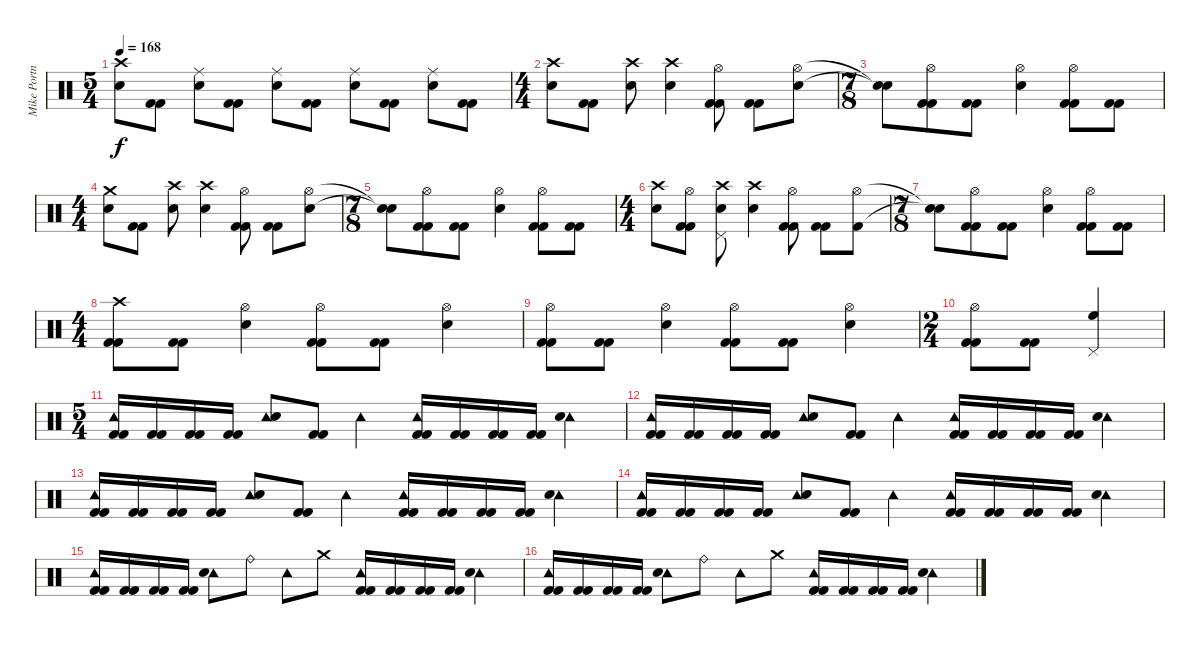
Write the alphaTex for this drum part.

\track ("Mike Portnoy - Drum" "Mike Portn") {instrument percussion}
\staff {score}
\articulation defaults
\ts (5 4)
\tempo 168
\clef neutral
\ks c
("Crash high (hit)" "Snare (hit) 2").8{dy f} ("Kick (hit) 2" "Kick (hit) 2").8 ("Ride (middle)" "Snare (hit) 2").8 ("Kick (hit) 2" "Kick (hit) 2").8 ("Ride (middle)" "Snare (hit) 2").8 ("Kick (hit) 2" "Kick (hit) 2").8 ("Ride (middle)" "Snare (hit) 2").8 ("Kick (hit) 2" "Kick (hit) 2").8 ("Ride (middle)" "Snare (hit) 2").8 ("Kick (hit) 2" "Kick (hit) 2").8 |
\ts (4 4)
("Crash high (hit)" "Snare (hit) 2").8 ("Kick (hit) 2" "Kick (hit) 2").8 ("Crash high (hit)" "Snare (hit) 2").8 ("Crash high (hit)" "Snare (hit) 2").4 ("Hi-Hat (open)" "Kick (hit) 2" "Kick (hit) 2").8 ("Kick (hit) 2" "Kick (hit) 2").8 ("Hi-Hat (open)" "Snare (hit) 2").8 |
\ts (7 8)
("Snare (hit)"{t} "Snare (hit)"{t}).8 ("Hi-Hat (open)" "Kick (hit) 2" "Kick (hit) 2").8 ("Kick (hit) 2" "Kick (hit) 2").8 ("Hi-Hat (open)" "Snare (hit) 2").4 ("Hi-Hat (open)" "Kick (hit) 2" "Kick (hit) 2").8 ("Kick (hit) 2" "Kick (hit) 2").8 |
\ts (4 4)
("Crash medium (hit)" "Snare (hit) 2").8 ("Kick (hit) 2" "Kick (hit) 2").8 ("Crash high (hit)" "Snare (hit) 2").8 ("Crash high (hit)" "Snare (hit) 2").4 ("Hi-Hat (open)" "Kick (hit) 2" "Kick (hit) 2").8 ("Kick (hit) 2" "Kick (hit) 2").8 ("Hi-Hat (open)" "Snare (hit) 2").8 |
\ts (7 8)
("Snare (hit)"{t} "Snare (hit)"{t}).8 ("Hi-Hat (open)" "Kick (hit) 2" "Kick (hit) 2").8 ("Kick (hit) 2" "Kick (hit) 2").8 ("Hi-Hat (open)" "Snare (hit) 2").4 ("Hi-Hat (open)" "Kick (hit) 2" "Kick (hit) 2").8 ("Kick (hit) 2" "Kick (hit) 2").8 |
\ts (4 4)
("Crash high (hit)" "Snare (hit) 2").8 ("Hi-Hat (open)" "Kick (hit) 2" "Kick (hit) 2").8 ("Crash high (hit)" "Pedal Hi-Hat (hit)" "Snare (hit) 2").8 ("Crash high (hit)" "Snare (hit) 2").4 ("Hi-Hat (open)" "Kick (hit) 2" "Kick (hit) 2").8 ("Kick (hit) 2" "Kick (hit) 2").8 ("Hi-Hat (open)" "Kick (hit) 2").8 |
\ts (7 8)
("Snare (hit)"{t} "Snare (hit)"{t}).8 ("Hi-Hat (open)" "Kick (hit) 2" "Kick (hit) 2").8 ("Kick (hit) 2" "Kick (hit) 2").8 ("Hi-Hat (open)" "Snare (hit) 2").4 ("Hi-Hat (open)" "Kick (hit) 2" "Kick (hit) 2").8 ("Kick (hit) 2" "Kick (hit) 2").8 |
\ts (4 4)
("Crash high (hit)" "Kick (hit) 2" "Kick (hit) 2").8 ("Kick (hit) 2" "Kick (hit) 2").8 ("Hi-Hat (open)" "Snare (hit) 2").4 ("Hi-Hat (open)" "Kick (hit) 2" "Kick (hit) 2").8 ("Kick (hit) 2" "Kick (hit) 2").8 ("Hi-Hat (open)" "Snare (hit) 2").4 |
("Hi-Hat (open)" "Kick (hit) 2" "Kick (hit) 2").8 ("Kick (hit) 2" "Kick (hit) 2").8 ("Hi-Hat (open)" "Snare (hit) 2").4 ("Hi-Hat (open)" "Kick (hit) 2" "Kick (hit) 2").8 ("Kick (hit) 2" "Kick (hit) 2").8 ("Hi-Hat (open)" "Snare (hit) 2").4 |
\ts (2 4)
("Hi-Hat (open)" "Kick (hit) 2" "Kick (hit) 2").8 ("Kick (hit) 2" "Kick (hit) 2").8 ("High Floor Tom (hit)" "Pedal Hi-Hat (hit)").4 |
\ts (5 4)
("Tambourine (hit)" "Kick (hit) 2" "Kick (hit) 2").16 ("Kick (hit) 2" "Kick (hit) 2").16 ("Kick (hit) 2" "Kick (hit) 2").16 ("Kick (hit) 2" "Kick (hit) 2").16 ("Tambourine (hit)" "Snare (hit) 2").8 ("Kick (hit) 2" "Kick (hit) 2").8 "Tambourine (hit)".4 ("Tambourine (hit)" "Kick (hit) 2" "Kick (hit) 2").16 ("Kick (hit) 2" "Kick (hit) 2").16 ("Kick (hit) 2" "Kick (hit) 2").16 ("Kick (hit) 2" "Kick (hit) 2").16 ("Tambourine (hit)" "Snare (hit) 2").4 |
("Tambourine (hit)" "Kick (hit) 2" "Kick (hit) 2").16 ("Kick (hit) 2" "Kick (hit) 2").16 ("Kick (hit) 2" "Kick (hit) 2").16 ("Kick (hit) 2" "Kick (hit) 2").16 ("Tambourine (hit)" "Snare (hit) 2").8 ("Kick (hit) 2" "Kick (hit) 2").8 "Tambourine (hit)".4 ("Tambourine (hit)" "Kick (hit) 2" "Kick (hit) 2").16 ("Kick (hit) 2" "Kick (hit) 2").16 ("Kick (hit) 2" "Kick (hit) 2").16 ("Kick (hit) 2" "Kick (hit) 2").16 ("Tambourine (hit)" "Snare (hit) 2").4 |
("Tambourine (hit)" "Kick (hit) 2" "Kick (hit) 2").16 ("Kick (hit) 2" "Kick (hit) 2").16 ("Kick (hit) 2" "Kick (hit) 2").16 ("Kick (hit) 2" "Kick (hit) 2").16 ("Tambourine (hit)" "Snare (hit) 2").8 ("Kick (hit) 2" "Kick (hit) 2").8 "Tambourine (hit)".4 ("Tambourine (hit)" "Kick (hit) 2" "Kick (hit) 2").16 ("Kick (hit) 2" "Kick (hit) 2").16 ("Kick (hit) 2" "Kick (hit) 2").16 ("Kick (hit) 2" "Kick (hit) 2").16 ("Tambourine (hit)" "Snare (hit) 2").4 |
("Tambourine (hit)" "Kick (hit) 2" "Kick (hit) 2").16 ("Kick (hit) 2" "Kick (hit) 2").16 ("Kick (hit) 2" "Kick (hit) 2").16 ("Kick (hit) 2" "Kick (hit) 2").16 ("Tambourine (hit)" "Snare (hit) 2").8 ("Kick (hit) 2" "Kick (hit) 2").8 "Tambourine (hit)".4 ("Tambourine (hit)" "Kick (hit) 2" "Kick (hit) 2").16 ("Kick (hit) 2" "Kick (hit) 2").16 ("Kick (hit) 2" "Kick (hit) 2").16 ("Kick (hit) 2" "Kick (hit) 2").16 ("Tambourine (hit)" "Snare (hit) 2").4 |
("Tambourine (hit)" "Kick (hit) 2" "Kick (hit) 2").16 ("Kick (hit) 2" "Kick (hit) 2").16 ("Kick (hit) 2" "Kick (hit) 2").16 ("Kick (hit) 2" "Kick (hit) 2").16 ("Tambourine (hit)" "Snare (hit) 2").8 "Ride (bell)".8 "Tambourine (hit)".8 "Crash medium (hit)".8 ("Tambourine (hit)" "Kick (hit) 2" "Kick (hit) 2").16 ("Kick (hit) 2" "Kick (hit) 2").16 ("Kick (hit) 2" "Kick (hit) 2").16 ("Kick (hit) 2" "Kick (hit) 2").16 ("Tambourine (hit)" "Snare (hit) 2").4 |
("Tambourine (hit)" "Kick (hit) 2" "Kick (hit) 2").16 ("Kick (hit) 2" "Kick (hit) 2").16 ("Kick (hit) 2" "Kick (hit) 2").16 ("Kick (hit) 2" "Kick (hit) 2").16 ("Tambourine (hit)" "Snare (hit) 2").8 "Ride (bell)".8 "Tambourine (hit)".8 "Crash medium (hit)".8 ("Tambourine (hit)" "Kick (hit) 2" "Kick (hit) 2").16 ("Kick (hit) 2" "Kick (hit) 2").16 ("Kick (hit) 2" "Kick (hit) 2").16 ("Kick (hit) 2" "Kick (hit) 2").16 ("Tambourine (hit)" "Snare (hit) 2").4
